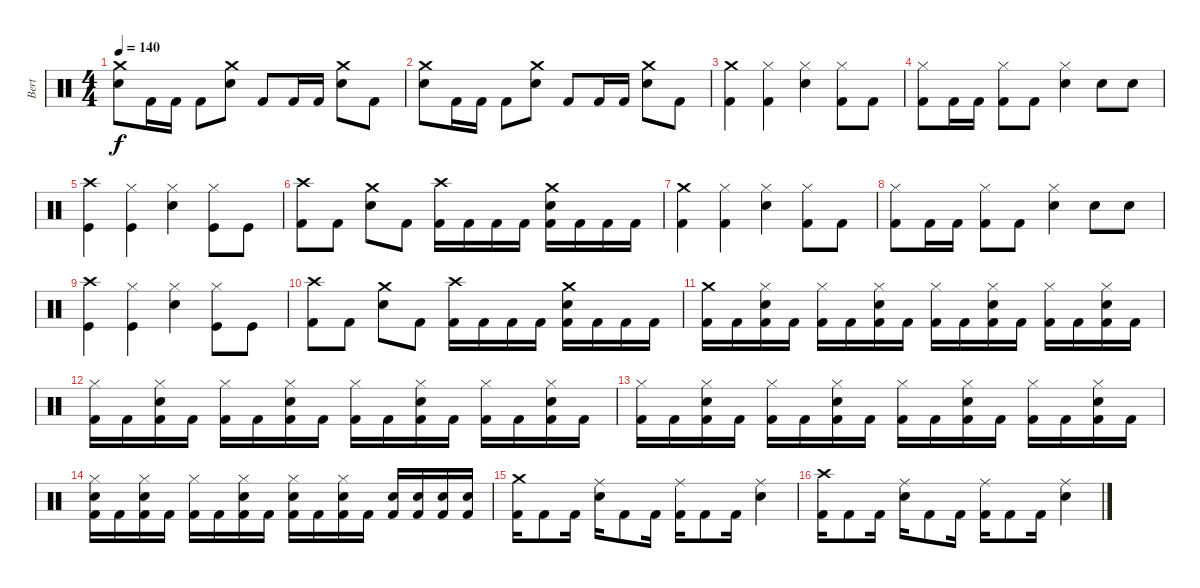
\track ("Bert" "Bert") {instrument percussion}
\staff {score}
\articulation defaults
\ts (4 4)
\tempo 140
\clef neutral
\ks c
("Crash medium (hit)" "Snare (hit) 2").8{dy f} "Kick (hit) 2".16 "Kick (hit) 2".16 "Kick (hit) 2".8 ("Crash medium (hit)" "Snare (hit) 2").8 "Kick (hit) 2".8 "Kick (hit) 2".16 "Kick (hit) 2".16 ("Crash medium (hit)" "Snare (hit) 2").8 "Kick (hit) 2".8 |
("Crash medium (hit)" "Snare (hit) 2").8 "Kick (hit) 2".16 "Kick (hit) 2".16 "Kick (hit) 2".8 ("Crash medium (hit)" "Snare (hit) 2").8 "Kick (hit) 2".8 "Kick (hit) 2".16 "Kick (hit) 2".16 ("Crash medium (hit)" "Snare (hit) 2").8 "Kick (hit) 2".8 |
("Crash medium (hit)" "Kick (hit) 2").4 ("Hi-Hat (closed)" "Kick (hit) 2").4 ("Hi-Hat (closed)" "Snare (hit) 2").4 ("Hi-Hat (closed)" "Kick (hit) 2").8 "Kick (hit) 2".8 |
("Hi-Hat (closed)" "Kick (hit) 2").8 "Kick (hit) 2".16 "Kick (hit) 2".16 ("Hi-Hat (closed)" "Kick (hit) 2").8 "Kick (hit) 2".8 ("Hi-Hat (closed)" "Snare (hit) 2").4 "Snare (hit) 2".8 "Snare (hit) 2".8 |
("Crash high (hit)" "Kick (hit)").4 ("Hi-Hat (closed)" "Kick (hit)").4 ("Hi-Hat (closed)" "Snare (hit) 2").4 ("Hi-Hat (closed)" "Kick (hit)").8 "Kick (hit)".8 |
("Crash high (hit)" "Kick (hit) 2").8 "Kick (hit) 2".8 ("Crash medium (hit)" "Snare (hit) 2").8 "Kick (hit) 2".8 ("Crash high (hit)" "Kick (hit) 2").16 "Kick (hit) 2".16 "Kick (hit) 2".16 "Kick (hit) 2".16 ("Crash medium (hit)" "Snare (hit) 2" "Kick (hit) 2").16 "Kick (hit) 2".16 "Kick (hit) 2".16 "Kick (hit) 2".16 |
("Crash medium (hit)" "Kick (hit) 2").4 ("Hi-Hat (closed)" "Kick (hit) 2").4 ("Hi-Hat (closed)" "Snare (hit) 2").4 ("Hi-Hat (closed)" "Kick (hit) 2").8 "Kick (hit) 2".8 |
("Hi-Hat (closed)" "Kick (hit) 2").8 "Kick (hit) 2".16 "Kick (hit) 2".16 ("Hi-Hat (closed)" "Kick (hit) 2").8 "Kick (hit) 2".8 ("Hi-Hat (closed)" "Snare (hit) 2").4 "Snare (hit) 2".8 "Snare (hit) 2".8 |
("Crash high (hit)" "Kick (hit)").4 ("Hi-Hat (closed)" "Kick (hit)").4 ("Hi-Hat (closed)" "Snare (hit) 2").4 ("Hi-Hat (closed)" "Kick (hit)").8 "Kick (hit)".8 |
("Crash high (hit)" "Kick (hit) 2").8 "Kick (hit) 2".8 ("Crash medium (hit)" "Snare (hit) 2").8 "Kick (hit) 2".8 ("Crash high (hit)" "Kick (hit) 2").16 "Kick (hit) 2".16 "Kick (hit) 2".16 "Kick (hit) 2".16 ("Crash medium (hit)" "Snare (hit) 2" "Kick (hit) 2").16 "Kick (hit) 2".16 "Kick (hit) 2".16 "Kick (hit) 2".16 |
("Crash medium (hit)" "Kick (hit) 2").16 "Kick (hit) 2".16 ("Hi-Hat (closed)" "Snare (hit) 2" "Kick (hit) 2").16 "Kick (hit) 2".16 ("Hi-Hat (closed)" "Kick (hit) 2").16 "Kick (hit) 2".16 ("Hi-Hat (closed)" "Snare (hit) 2" "Kick (hit) 2").16 "Kick (hit) 2".16 ("Hi-Hat (closed)" "Kick (hit) 2").16 "Kick (hit) 2".16 ("Hi-Hat (closed)" "Snare (hit) 2" "Kick (hit) 2").16 "Kick (hit) 2".16 ("Hi-Hat (closed)" "Kick (hit) 2").16 "Kick (hit) 2".16 ("Hi-Hat (closed)" "Snare (hit) 2" "Kick (hit) 2").16 "Kick (hit) 2".16 |
("Hi-Hat (closed)" "Kick (hit) 2").16 "Kick (hit) 2".16 ("Hi-Hat (closed)" "Snare (hit) 2" "Kick (hit) 2").16 "Kick (hit) 2".16 ("Hi-Hat (closed)" "Kick (hit) 2").16 "Kick (hit) 2".16 ("Hi-Hat (closed)" "Snare (hit) 2" "Kick (hit) 2").16 "Kick (hit) 2".16 ("Hi-Hat (closed)" "Kick (hit) 2").16 "Kick (hit) 2".16 ("Hi-Hat (closed)" "Snare (hit) 2" "Kick (hit) 2").16 "Kick (hit) 2".16 ("Hi-Hat (closed)" "Kick (hit) 2").16 "Kick (hit) 2".16 ("Hi-Hat (closed)" "Snare (hit) 2" "Kick (hit) 2").16 "Kick (hit) 2".16 |
("Hi-Hat (closed)" "Kick (hit) 2").16 "Kick (hit) 2".16 ("Hi-Hat (closed)" "Snare (hit) 2" "Kick (hit) 2").16 "Kick (hit) 2".16 ("Hi-Hat (closed)" "Kick (hit) 2").16 "Kick (hit) 2".16 ("Hi-Hat (closed)" "Snare (hit) 2" "Kick (hit) 2").16 "Kick (hit) 2".16 ("Hi-Hat (closed)" "Kick (hit) 2").16 "Kick (hit) 2".16 ("Hi-Hat (closed)" "Snare (hit) 2" "Kick (hit) 2").16 "Kick (hit) 2".16 ("Hi-Hat (closed)" "Kick (hit) 2").16 "Kick (hit) 2".16 ("Hi-Hat (closed)" "Snare (hit) 2" "Kick (hit) 2").16 "Kick (hit) 2".16 |
("Hi-Hat (closed)" "Snare (hit) 2" "Kick (hit) 2").16 "Kick (hit) 2".16 ("Hi-Hat (closed)" "Snare (hit) 2" "Kick (hit) 2").16 "Kick (hit) 2".16 ("Hi-Hat (closed)" "Kick (hit) 2").16 "Kick (hit) 2".16 ("Hi-Hat (closed)" "Snare (hit) 2" "Kick (hit) 2").16 "Kick (hit) 2".16 ("Hi-Hat (closed)" "Snare (hit) 2" "Kick (hit) 2").16 "Kick (hit) 2".16 ("Hi-Hat (closed)" "Snare (hit) 2" "Kick (hit) 2").16 "Kick (hit) 2".16 ("Snare (hit) 2" "Kick (hit) 2").16 ("Snare (hit) 2" "Kick (hit) 2").16 ("Snare (hit) 2" "Kick (hit) 2").16 ("Snare (hit) 2" "Kick (hit) 2").16 |
("Crash medium (hit)" "Kick (hit) 2").16 "Kick (hit) 2".8 "Kick (hit) 2".16 ("Ride (middle)" "Snare (hit) 2").16 "Kick (hit) 2".8 "Kick (hit) 2".16 ("Ride (middle)" "Kick (hit) 2").16 "Kick (hit) 2".8 "Kick (hit) 2".16 ("Ride (middle)" "Snare (hit) 2").4 |
("Crash high (hit)" "Kick (hit) 2").16 "Kick (hit) 2".8 "Kick (hit) 2".16 ("Ride (middle)" "Snare (hit) 2").16 "Kick (hit) 2".8 "Kick (hit) 2".16 ("Ride (middle)" "Kick (hit) 2").16 "Kick (hit) 2".8 "Kick (hit) 2".16 ("Ride (middle)" "Snare (hit) 2").4
